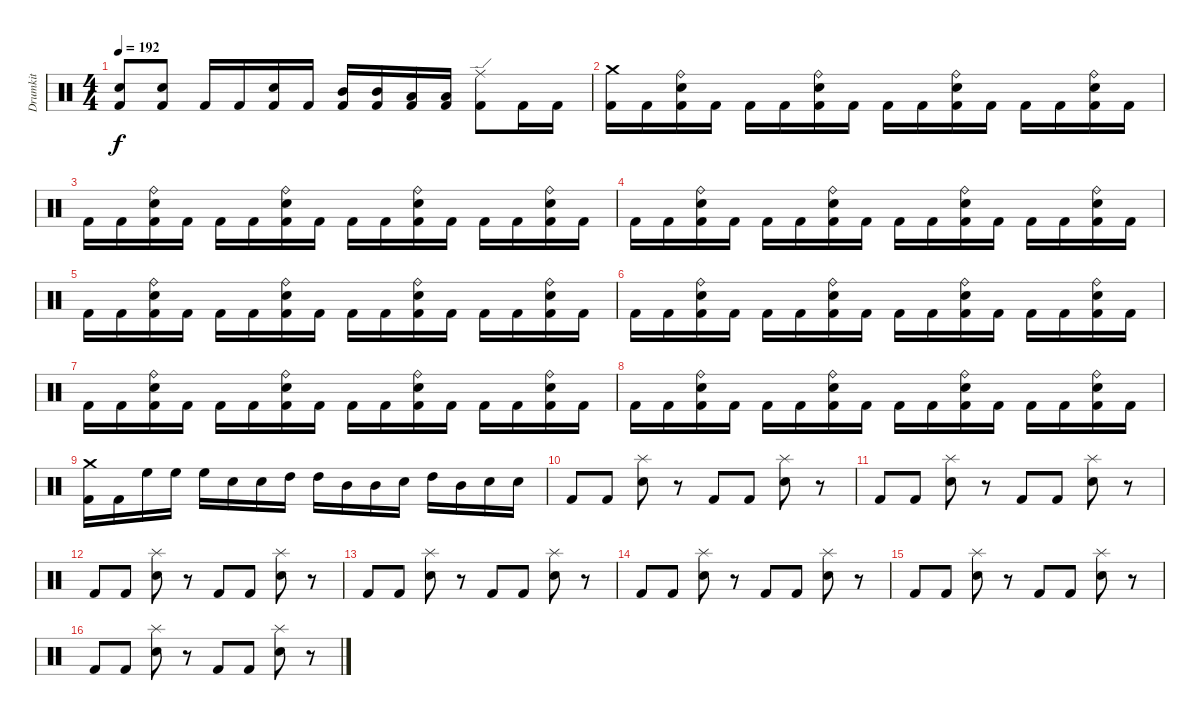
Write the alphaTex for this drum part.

\track ("Drumkit" "Drumkit") {instrument percussion}
\staff {score}
\articulation defaults
\ts (4 4)
\tempo 192
\clef neutral
\ks c
("Kick (hit) 2" "Snare (hit) 2").8{dy f} ("Kick (hit) 2" "Snare (hit) 2").8 "Kick (hit) 2".16 "Kick (hit) 2".16 ("Kick (hit) 2" "Snare (hit) 2").16 "Kick (hit) 2".16 ("Kick (hit) 2" "Mid Tom (hit)").16 ("Kick (hit) 2" "Mid Tom (hit)").16 ("Kick (hit) 2" "Low Tom (hit)").16 ("Kick (hit) 2" "Low Tom (hit)").16 ("Kick (hit) 2" "Ride (edge)").8 "Kick (hit) 2".16 "Kick (hit) 2".16 |
("Kick (hit) 2" "Crash medium (hit)").16 "Kick (hit) 2".16 ("Kick (hit) 2" "Snare (hit) 2" "Ride (bell)").16 "Kick (hit) 2".16 "Kick (hit) 2".16 "Kick (hit) 2".16 ("Kick (hit) 2" "Ride (bell)" "Snare (hit) 2").16 "Kick (hit) 2".16 "Kick (hit) 2".16 "Kick (hit) 2".16 ("Kick (hit) 2" "Ride (bell)" "Snare (hit) 2").16 "Kick (hit) 2".16 "Kick (hit) 2".16 "Kick (hit) 2".16 ("Kick (hit) 2" "Ride (bell)" "Snare (hit) 2").16 "Kick (hit) 2".16 |
"Kick (hit) 2".16 "Kick (hit) 2".16 ("Kick (hit) 2" "Snare (hit) 2" "Ride (bell)").16 "Kick (hit) 2".16 "Kick (hit) 2".16 "Kick (hit) 2".16 ("Kick (hit) 2" "Ride (bell)" "Snare (hit) 2").16 "Kick (hit) 2".16 "Kick (hit) 2".16 "Kick (hit) 2".16 ("Kick (hit) 2" "Ride (bell)" "Snare (hit) 2").16 "Kick (hit) 2".16 "Kick (hit) 2".16 "Kick (hit) 2".16 ("Kick (hit) 2" "Ride (bell)" "Snare (hit) 2").16 "Kick (hit) 2".16 |
"Kick (hit) 2".16 "Kick (hit) 2".16 ("Kick (hit) 2" "Snare (hit) 2" "Ride (bell)").16 "Kick (hit) 2".16 "Kick (hit) 2".16 "Kick (hit) 2".16 ("Kick (hit) 2" "Ride (bell)" "Snare (hit) 2").16 "Kick (hit) 2".16 "Kick (hit) 2".16 "Kick (hit) 2".16 ("Kick (hit) 2" "Ride (bell)" "Snare (hit) 2").16 "Kick (hit) 2".16 "Kick (hit) 2".16 "Kick (hit) 2".16 ("Kick (hit) 2" "Ride (bell)" "Snare (hit) 2").16 "Kick (hit) 2".16 |
"Kick (hit) 2".16 "Kick (hit) 2".16 ("Kick (hit) 2" "Snare (hit) 2" "Ride (bell)").16 "Kick (hit) 2".16 "Kick (hit) 2".16 "Kick (hit) 2".16 ("Kick (hit) 2" "Ride (bell)" "Snare (hit) 2").16 "Kick (hit) 2".16 "Kick (hit) 2".16 "Kick (hit) 2".16 ("Kick (hit) 2" "Ride (bell)" "Snare (hit) 2").16 "Kick (hit) 2".16 "Kick (hit) 2".16 "Kick (hit) 2".16 ("Kick (hit) 2" "Ride (bell)" "Snare (hit) 2").16 "Kick (hit) 2".16 |
"Kick (hit) 2".16 "Kick (hit) 2".16 ("Kick (hit) 2" "Snare (hit) 2" "Ride (bell)").16 "Kick (hit) 2".16 "Kick (hit) 2".16 "Kick (hit) 2".16 ("Kick (hit) 2" "Ride (bell)" "Snare (hit) 2").16 "Kick (hit) 2".16 "Kick (hit) 2".16 "Kick (hit) 2".16 ("Kick (hit) 2" "Ride (bell)" "Snare (hit) 2").16 "Kick (hit) 2".16 "Kick (hit) 2".16 "Kick (hit) 2".16 ("Kick (hit) 2" "Ride (bell)" "Snare (hit) 2").16 "Kick (hit) 2".16 |
"Kick (hit) 2".16 "Kick (hit) 2".16 ("Kick (hit) 2" "Snare (hit) 2" "Ride (bell)").16 "Kick (hit) 2".16 "Kick (hit) 2".16 "Kick (hit) 2".16 ("Kick (hit) 2" "Ride (bell)" "Snare (hit) 2").16 "Kick (hit) 2".16 "Kick (hit) 2".16 "Kick (hit) 2".16 ("Kick (hit) 2" "Ride (bell)" "Snare (hit) 2").16 "Kick (hit) 2".16 "Kick (hit) 2".16 "Kick (hit) 2".16 ("Kick (hit) 2" "Ride (bell)" "Snare (hit) 2").16 "Kick (hit) 2".16 |
"Kick (hit) 2".16 "Kick (hit) 2".16 ("Kick (hit) 2" "Snare (hit) 2" "Ride (bell)").16 "Kick (hit) 2".16 "Kick (hit) 2".16 "Kick (hit) 2".16 ("Kick (hit) 2" "Ride (bell)" "Snare (hit) 2").16 "Kick (hit) 2".16 "Kick (hit) 2".16 "Kick (hit) 2".16 ("Kick (hit) 2" "Ride (bell)" "Snare (hit) 2").16 "Kick (hit) 2".16 "Kick (hit) 2".16 "Kick (hit) 2".16 ("Kick (hit) 2" "Ride (bell)" "Snare (hit) 2").16 "Kick (hit) 2".16 |
("Crash medium (hit)" "Kick (hit) 2").16 "Kick (hit) 2".16 "High Floor Tom (hit)".16 "High Floor Tom (hit)".16 "High Floor Tom (hit)".16 "Snare (hit) 2".16 "Snare (hit) 2".16 "High Tom (hit)".16 "High Tom (hit)".16 "Mid Tom (hit)".16 "Mid Tom (hit)".16 "Snare (hit) 2".16 "High Tom (hit)".16 "Mid Tom (hit)".16 "Snare (hit) 2".16 "Snare (hit) 2".16 |
"Kick (hit) 2".8 "Kick (hit) 2".8 ("Snare (hit) 2" "Splash (hit)").8 r.8 "Kick (hit) 2".8 "Kick (hit) 2".8 ("Snare (hit) 2" "Splash (hit)").8 r.8 |
"Kick (hit) 2".8 "Kick (hit) 2".8 ("Snare (hit) 2" "Splash (hit)").8 r.8 "Kick (hit) 2".8 "Kick (hit) 2".8 ("Snare (hit) 2" "Splash (hit)").8 r.8 |
"Kick (hit) 2".8 "Kick (hit) 2".8 ("Snare (hit) 2" "Splash (hit)").8 r.8 "Kick (hit) 2".8 "Kick (hit) 2".8 ("Snare (hit) 2" "Splash (hit)").8 r.8 |
"Kick (hit) 2".8 "Kick (hit) 2".8 ("Snare (hit) 2" "Splash (hit)").8 r.8 "Kick (hit) 2".8 "Kick (hit) 2".8 ("Snare (hit) 2" "Splash (hit)").8 r.8 |
"Kick (hit) 2".8 "Kick (hit) 2".8 ("Snare (hit) 2" "Splash (hit)").8 r.8 "Kick (hit) 2".8 "Kick (hit) 2".8 ("Snare (hit) 2" "Splash (hit)").8 r.8 |
"Kick (hit) 2".8 "Kick (hit) 2".8 ("Snare (hit) 2" "Splash (hit)").8 r.8 "Kick (hit) 2".8 "Kick (hit) 2".8 ("Snare (hit) 2" "Splash (hit)").8 r.8 |
"Kick (hit) 2".8 "Kick (hit) 2".8 ("Snare (hit) 2" "Splash (hit)").8 r.8 "Kick (hit) 2".8 "Kick (hit) 2".8 ("Snare (hit) 2" "Splash (hit)").8 r.8
